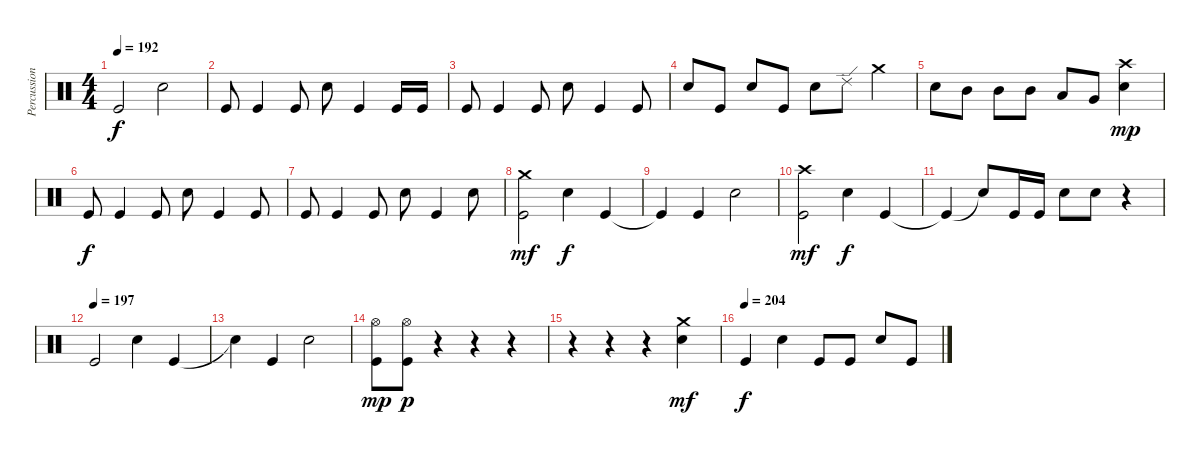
\track ("Percussion" "Percussion") {instrument percussion}
\staff {score}
\articulation defaults
\ts (4 4)
\tempo 192
\clef neutral
\ks c "Kick (hit)".2{dy f} "Electric Snare (hit)".2
|
"Kick (hit)".8 "Kick (hit)".4 "Kick (hit)".8 "Electric Snare (hit)".8 "Kick (hit)".4 "Kick (hit)".16 "Kick (hit)".16 |
"Kick (hit)".8 "Kick (hit)".4 "Kick (hit)".8 "Electric Snare (hit)".8 "Kick (hit)".4 "Kick (hit)".8 |
"Electric Snare (hit)".8 "Kick (hit)".8 "Electric Snare (hit)".8 "Kick (hit)".8 "Electric Snare (hit)".8 "Ride (edge) 2".8 "Crash medium (hit)".4 |
"Electric Snare (hit)".8 "Mid Tom (hit)".8 "Mid Tom (hit)".8 "Mid Tom (hit)".8 "Low Tom (hit)".8 "Very Low Tom (hit)".8 ("Crash high (hit)" "Electric Snare (hit)").4{dy mp} |
"Kick (hit)".8{dy f} "Kick (hit)".4 "Kick (hit)".8 "Electric Snare (hit)".8 "Kick (hit)".4 "Kick (hit)".8 |
"Kick (hit)".8 "Kick (hit)".4 "Kick (hit)".8 "Electric Snare (hit)".8 "Kick (hit)".4 "Electric Snare (hit)".8 |
("Crash medium (hit)" "Kick (hit)").2{dy mf} "Electric Snare (hit)".4{dy f} "Kick (hit)".4 |
"Kick (hit)"{t}.4 "Kick (hit)".4 "Electric Snare (hit)".2 |
("Crash high (hit)" "Kick (hit)").2{dy mf} "Electric Snare (hit)".4{dy f} "Kick (hit)".4 |
"Kick (hit)"{t}.4 "Snare (hit)"{t}.8 "Kick (hit)".16 "Kick (hit)".16 "Electric Snare (hit)".8 "Electric Snare (hit)".8 r.4 |
\tempo (197)
"Kick (hit)".2 "Electric Snare (hit)".4 "Kick (hit)".4 |
"Snare (hit)"{t}.4 "Kick (hit)".4 "Electric Snare (hit)".2 |
("Hi-Hat (open)" "Kick (hit)").8{dy mp} ("Hi-Hat (open)" "Kick (hit)").8{dy p} r.4 r.4 r.4 |
r.4 r.4 r.4 ("Crash medium (hit)" "Electric Snare (hit)").4{dy mf} |
\tempo (204)
"Kick (hit)".4{dy f} "Electric Snare (hit)".4 "Kick (hit)".8 "Kick (hit)".8 "Electric Snare (hit)".8 "Kick (hit)".8
